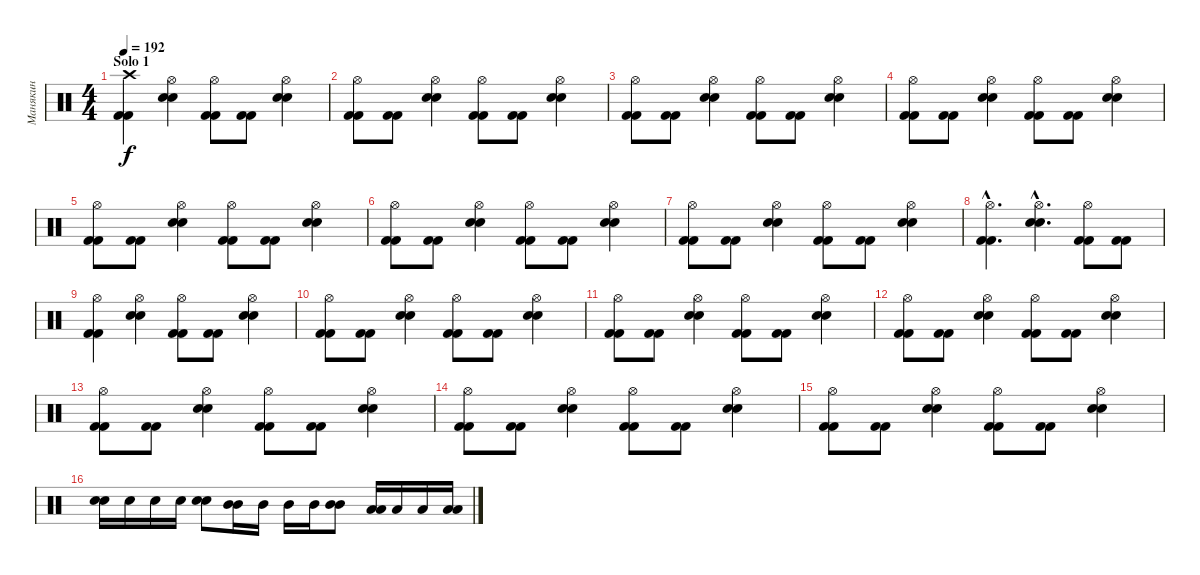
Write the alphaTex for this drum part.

\track ("Манякин" "Манякин") {instrument percussion}
\staff {score}
\articulation defaults
\ts (4 4)
\section ("" "Solo 1")
\tempo 192
\clef neutral
\ks c
("Crash high (hit)" "Kick (hit) 2" "Kick (hit) 2").4{dy f} ("Hi-Hat (open)" "Electric Snare (hit)" "Electric Snare (hit)").4 ("Hi-Hat (open)" "Kick (hit) 2" "Kick (hit) 2").8 ("Kick (hit) 2" "Kick (hit) 2").8 ("Hi-Hat (open)" "Electric Snare (hit)" "Electric Snare (hit)").4 |
("Hi-Hat (open)" "Kick (hit) 2" "Kick (hit) 2").8 ("Kick (hit) 2" "Kick (hit) 2").8 ("Hi-Hat (open)" "Electric Snare (hit)" "Electric Snare (hit)").4 ("Hi-Hat (open)" "Kick (hit) 2" "Kick (hit) 2").8 ("Kick (hit) 2" "Kick (hit) 2").8 ("Hi-Hat (open)" "Electric Snare (hit)" "Electric Snare (hit)").4 |
("Hi-Hat (open)" "Kick (hit) 2" "Kick (hit) 2").8 ("Kick (hit) 2" "Kick (hit) 2").8 ("Hi-Hat (open)" "Electric Snare (hit)" "Electric Snare (hit)").4 ("Hi-Hat (open)" "Kick (hit) 2" "Kick (hit) 2").8 ("Kick (hit) 2" "Kick (hit) 2").8 ("Hi-Hat (open)" "Electric Snare (hit)" "Electric Snare (hit)").4 |
("Hi-Hat (open)" "Kick (hit) 2" "Kick (hit) 2").8 ("Kick (hit) 2" "Kick (hit) 2").8 ("Hi-Hat (open)" "Electric Snare (hit)" "Electric Snare (hit)").4 ("Hi-Hat (open)" "Kick (hit) 2" "Kick (hit) 2").8 ("Kick (hit) 2" "Kick (hit) 2").8 ("Hi-Hat (open)" "Electric Snare (hit)" "Electric Snare (hit)").4 |
("Hi-Hat (open)" "Kick (hit) 2" "Kick (hit) 2").8 ("Kick (hit) 2" "Kick (hit) 2").8 ("Hi-Hat (open)" "Electric Snare (hit)" "Electric Snare (hit)").4 ("Hi-Hat (open)" "Kick (hit) 2" "Kick (hit) 2").8 ("Kick (hit) 2" "Kick (hit) 2").8 ("Hi-Hat (open)" "Electric Snare (hit)" "Electric Snare (hit)").4 |
("Hi-Hat (open)" "Kick (hit) 2" "Kick (hit) 2").8 ("Kick (hit) 2" "Kick (hit) 2").8 ("Hi-Hat (open)" "Electric Snare (hit)" "Electric Snare (hit)").4 ("Hi-Hat (open)" "Kick (hit) 2" "Kick (hit) 2").8 ("Kick (hit) 2" "Kick (hit) 2").8 ("Hi-Hat (open)" "Electric Snare (hit)" "Electric Snare (hit)").4 |
("Hi-Hat (open)" "Kick (hit) 2" "Kick (hit) 2").8 ("Kick (hit) 2" "Kick (hit) 2").8 ("Hi-Hat (open)" "Electric Snare (hit)" "Electric Snare (hit)").4 ("Hi-Hat (open)" "Kick (hit) 2" "Kick (hit) 2").8 ("Kick (hit) 2" "Kick (hit) 2").8 ("Hi-Hat (open)" "Electric Snare (hit)" "Electric Snare (hit)").4 |
("Hi-Hat (open)"{hac} "Kick (hit) 2"{hac} "Kick (hit) 2"{hac}).4{d} ("Hi-Hat (open)"{hac} "Electric Snare (hit)"{hac} "Electric Snare (hit)"{hac}).4{d} ("Hi-Hat (open)" "Kick (hit) 2" "Kick (hit) 2").8 ("Kick (hit) 2" "Kick (hit) 2").8 |
("Hi-Hat (open)" "Kick (hit) 2" "Kick (hit) 2").4 ("Hi-Hat (open)" "Electric Snare (hit)" "Electric Snare (hit)").4 ("Hi-Hat (open)" "Kick (hit) 2" "Kick (hit) 2").8 ("Kick (hit) 2" "Kick (hit) 2").8 ("Hi-Hat (open)" "Electric Snare (hit)" "Electric Snare (hit)").4 |
("Hi-Hat (open)" "Kick (hit) 2" "Kick (hit) 2").8 ("Kick (hit) 2" "Kick (hit) 2").8 ("Hi-Hat (open)" "Electric Snare (hit)" "Electric Snare (hit)").4 ("Hi-Hat (open)" "Kick (hit) 2" "Kick (hit) 2").8 ("Kick (hit) 2" "Kick (hit) 2").8 ("Hi-Hat (open)" "Electric Snare (hit)" "Electric Snare (hit)").4 |
("Hi-Hat (open)" "Kick (hit) 2" "Kick (hit) 2").8 ("Kick (hit) 2" "Kick (hit) 2").8 ("Hi-Hat (open)" "Electric Snare (hit)" "Electric Snare (hit)").4 ("Hi-Hat (open)" "Kick (hit) 2" "Kick (hit) 2").8 ("Kick (hit) 2" "Kick (hit) 2").8 ("Hi-Hat (open)" "Electric Snare (hit)" "Electric Snare (hit)").4 |
("Hi-Hat (open)" "Kick (hit) 2" "Kick (hit) 2").8 ("Kick (hit) 2" "Kick (hit) 2").8 ("Hi-Hat (open)" "Electric Snare (hit)" "Electric Snare (hit)").4 ("Hi-Hat (open)" "Kick (hit) 2" "Kick (hit) 2").8 ("Kick (hit) 2" "Kick (hit) 2").8 ("Hi-Hat (open)" "Electric Snare (hit)" "Electric Snare (hit)").4 |
("Hi-Hat (open)" "Kick (hit) 2" "Kick (hit) 2").8 ("Kick (hit) 2" "Kick (hit) 2").8 ("Hi-Hat (open)" "Electric Snare (hit)" "Electric Snare (hit)").4 ("Hi-Hat (open)" "Kick (hit) 2" "Kick (hit) 2").8 ("Kick (hit) 2" "Kick (hit) 2").8 ("Hi-Hat (open)" "Electric Snare (hit)" "Electric Snare (hit)").4 |
("Hi-Hat (open)" "Kick (hit) 2" "Kick (hit) 2").8 ("Kick (hit) 2" "Kick (hit) 2").8 ("Hi-Hat (open)" "Electric Snare (hit)" "Electric Snare (hit)").4 ("Hi-Hat (open)" "Kick (hit) 2" "Kick (hit) 2").8 ("Kick (hit) 2" "Kick (hit) 2").8 ("Hi-Hat (open)" "Electric Snare (hit)" "Electric Snare (hit)").4 |
("Hi-Hat (open)" "Kick (hit) 2" "Kick (hit) 2").8 ("Kick (hit) 2" "Kick (hit) 2").8 ("Hi-Hat (open)" "Electric Snare (hit)" "Electric Snare (hit)").4 ("Hi-Hat (open)" "Kick (hit) 2" "Kick (hit) 2").8 ("Kick (hit) 2" "Kick (hit) 2").8 ("Hi-Hat (open)" "Electric Snare (hit)" "Electric Snare (hit)").4 |
("Electric Snare (hit)" "Electric Snare (hit)").16 "Electric Snare (hit)".16 "Electric Snare (hit)".16 "Electric Snare (hit)".16 ("Electric Snare (hit)" "Electric Snare (hit)").8 ("Mid Tom (hit)" "Mid Tom (hit)").16 "Mid Tom (hit)".16 "Mid Tom (hit)".16 "Mid Tom (hit)".16 ("Mid Tom (hit)" "Mid Tom (hit)").8 ("Low Tom (hit)" "Low Tom (hit)").16 "Low Tom (hit)".16 "Low Tom (hit)".16 ("Low Tom (hit)" "Low Tom (hit)").16
